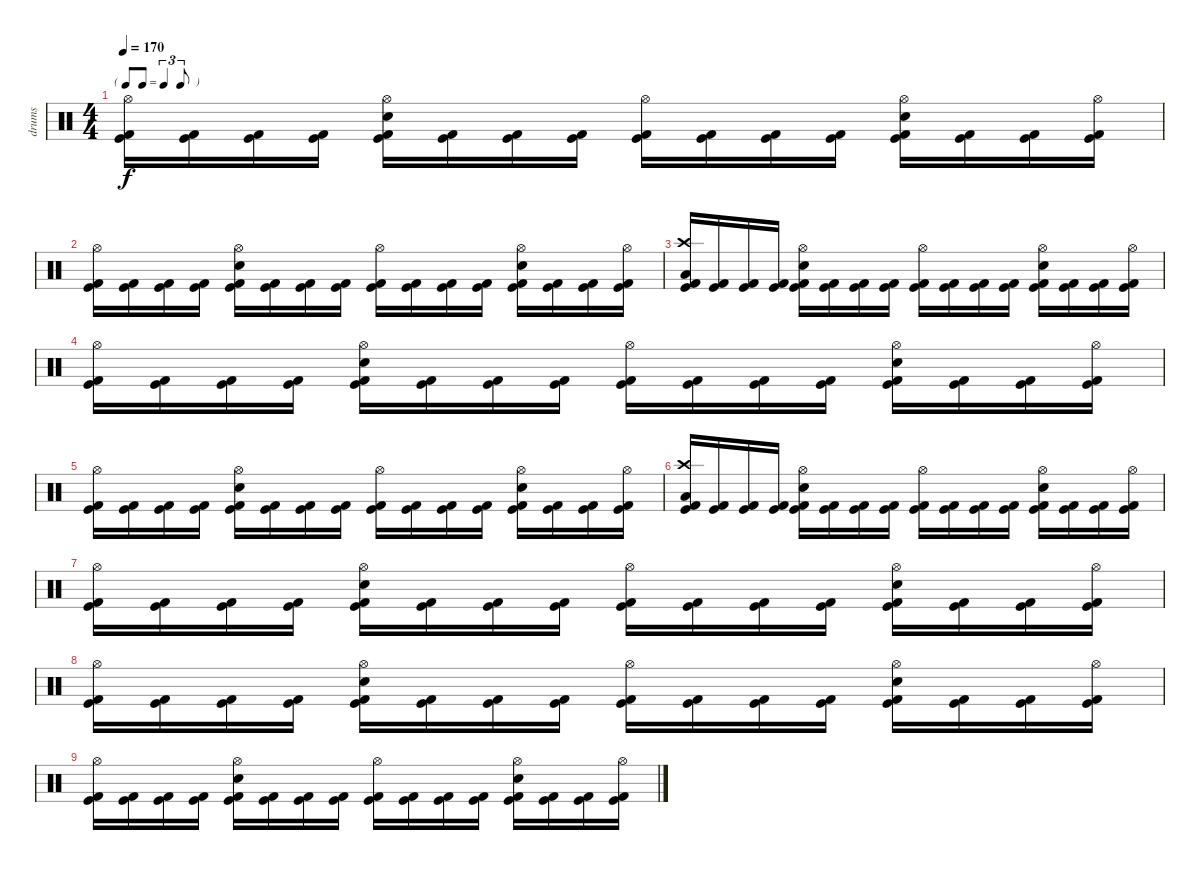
\track ("drums" "drums") {instrument percussion}
\staff {score}
\articulation defaults
\ts (4 4)
\tf triplet8th
\tempo 170
\clef neutral
\ks c
("Hi-Hat (open)" "Kick (hit)" "Kick (hit) 2").16{dy f} ("Kick (hit)" "Kick (hit) 2").16 ("Kick (hit)" "Kick (hit) 2").16 ("Kick (hit)" "Kick (hit) 2").16 ("Hi-Hat (open)" "Snare (hit) 2" "Kick (hit)" "Kick (hit) 2").16 ("Kick (hit)" "Kick (hit) 2").16 ("Kick (hit)" "Kick (hit) 2").16 ("Kick (hit)" "Kick (hit) 2").16 ("Hi-Hat (open)" "Kick (hit)" "Kick (hit) 2").16 ("Kick (hit)" "Kick (hit) 2").16 ("Kick (hit)" "Kick (hit) 2").16 ("Kick (hit)" "Kick (hit) 2").16 ("Hi-Hat (open)" "Snare (hit) 2" "Kick (hit)" "Kick (hit) 2").16 ("Kick (hit)" "Kick (hit) 2").16 ("Kick (hit)" "Kick (hit) 2").16 ("Hi-Hat (open)" "Kick (hit)" "Kick (hit) 2").16 |
("Hi-Hat (open)" "Kick (hit)" "Kick (hit) 2").16 ("Kick (hit)" "Kick (hit) 2").16 ("Kick (hit)" "Kick (hit) 2").16 ("Kick (hit)" "Kick (hit) 2").16 ("Hi-Hat (open)" "Snare (hit) 2" "Kick (hit)" "Kick (hit) 2").16 ("Kick (hit)" "Kick (hit) 2").16 ("Kick (hit)" "Kick (hit) 2").16 ("Kick (hit)" "Kick (hit) 2").16 ("Hi-Hat (open)" "Kick (hit)" "Kick (hit) 2").16 ("Kick (hit)" "Kick (hit) 2").16 ("Kick (hit)" "Kick (hit) 2").16 ("Kick (hit)" "Kick (hit) 2").16 ("Hi-Hat (open)" "Snare (hit) 2" "Kick (hit)" "Kick (hit) 2").16 ("Kick (hit)" "Kick (hit) 2").16 ("Kick (hit)" "Kick (hit) 2").16 ("Hi-Hat (open)" "Kick (hit)" "Kick (hit) 2").16 |
("Crash high (hit)" "Low Floor Tom (hit)" "Kick (hit)" "Kick (hit) 2").16 ("Kick (hit)" "Kick (hit) 2").16 ("Kick (hit)" "Kick (hit) 2").16 ("Kick (hit)" "Kick (hit) 2").16 ("Hi-Hat (open)" "Snare (hit) 2" "Kick (hit)" "Kick (hit) 2").16 ("Kick (hit)" "Kick (hit) 2").16 ("Kick (hit)" "Kick (hit) 2").16 ("Kick (hit)" "Kick (hit) 2").16 ("Hi-Hat (open)" "Kick (hit)" "Kick (hit) 2").16 ("Kick (hit)" "Kick (hit) 2").16 ("Kick (hit)" "Kick (hit) 2").16 ("Kick (hit)" "Kick (hit) 2").16 ("Hi-Hat (open)" "Snare (hit) 2" "Kick (hit)" "Kick (hit) 2").16 ("Kick (hit)" "Kick (hit) 2").16 ("Kick (hit)" "Kick (hit) 2").16 ("Hi-Hat (open)" "Kick (hit)" "Kick (hit) 2").16 |
("Hi-Hat (open)" "Kick (hit)" "Kick (hit) 2").16 ("Kick (hit)" "Kick (hit) 2").16 ("Kick (hit)" "Kick (hit) 2").16 ("Kick (hit)" "Kick (hit) 2").16 ("Hi-Hat (open)" "Snare (hit) 2" "Kick (hit)" "Kick (hit) 2").16 ("Kick (hit)" "Kick (hit) 2").16 ("Kick (hit)" "Kick (hit) 2").16 ("Kick (hit)" "Kick (hit) 2").16 ("Hi-Hat (open)" "Kick (hit)" "Kick (hit) 2").16 ("Kick (hit)" "Kick (hit) 2").16 ("Kick (hit)" "Kick (hit) 2").16 ("Kick (hit)" "Kick (hit) 2").16 ("Hi-Hat (open)" "Snare (hit) 2" "Kick (hit)" "Kick (hit) 2").16 ("Kick (hit)" "Kick (hit) 2").16 ("Kick (hit)" "Kick (hit) 2").16 ("Hi-Hat (open)" "Kick (hit)" "Kick (hit) 2").16 |
("Hi-Hat (open)" "Kick (hit)" "Kick (hit) 2").16 ("Kick (hit)" "Kick (hit) 2").16 ("Kick (hit)" "Kick (hit) 2").16 ("Kick (hit)" "Kick (hit) 2").16 ("Hi-Hat (open)" "Snare (hit) 2" "Kick (hit)" "Kick (hit) 2").16 ("Kick (hit)" "Kick (hit) 2").16 ("Kick (hit)" "Kick (hit) 2").16 ("Kick (hit)" "Kick (hit) 2").16 ("Hi-Hat (open)" "Kick (hit)" "Kick (hit) 2").16 ("Kick (hit)" "Kick (hit) 2").16 ("Kick (hit)" "Kick (hit) 2").16 ("Kick (hit)" "Kick (hit) 2").16 ("Hi-Hat (open)" "Snare (hit) 2" "Kick (hit)" "Kick (hit) 2").16 ("Kick (hit)" "Kick (hit) 2").16 ("Kick (hit)" "Kick (hit) 2").16 ("Hi-Hat (open)" "Kick (hit)" "Kick (hit) 2").16 |
("Crash high (hit)" "Low Floor Tom (hit)" "Kick (hit)" "Kick (hit) 2").16 ("Kick (hit)" "Kick (hit) 2").16 ("Kick (hit)" "Kick (hit) 2").16 ("Kick (hit)" "Kick (hit) 2").16 ("Hi-Hat (open)" "Snare (hit) 2" "Kick (hit)" "Kick (hit) 2").16 ("Kick (hit)" "Kick (hit) 2").16 ("Kick (hit)" "Kick (hit) 2").16 ("Kick (hit)" "Kick (hit) 2").16 ("Hi-Hat (open)" "Kick (hit)" "Kick (hit) 2").16 ("Kick (hit)" "Kick (hit) 2").16 ("Kick (hit)" "Kick (hit) 2").16 ("Kick (hit)" "Kick (hit) 2").16 ("Hi-Hat (open)" "Snare (hit) 2" "Kick (hit)" "Kick (hit) 2").16 ("Kick (hit)" "Kick (hit) 2").16 ("Kick (hit)" "Kick (hit) 2").16 ("Hi-Hat (open)" "Kick (hit)" "Kick (hit) 2").16 |
("Hi-Hat (open)" "Kick (hit)" "Kick (hit) 2").16 ("Kick (hit)" "Kick (hit) 2").16 ("Kick (hit)" "Kick (hit) 2").16 ("Kick (hit)" "Kick (hit) 2").16 ("Hi-Hat (open)" "Snare (hit) 2" "Kick (hit)" "Kick (hit) 2").16 ("Kick (hit)" "Kick (hit) 2").16 ("Kick (hit)" "Kick (hit) 2").16 ("Kick (hit)" "Kick (hit) 2").16 ("Hi-Hat (open)" "Kick (hit)" "Kick (hit) 2").16 ("Kick (hit)" "Kick (hit) 2").16 ("Kick (hit)" "Kick (hit) 2").16 ("Kick (hit)" "Kick (hit) 2").16 ("Hi-Hat (open)" "Snare (hit) 2" "Kick (hit)" "Kick (hit) 2").16 ("Kick (hit)" "Kick (hit) 2").16 ("Kick (hit)" "Kick (hit) 2").16 ("Hi-Hat (open)" "Kick (hit)" "Kick (hit) 2").16 |
("Hi-Hat (open)" "Kick (hit)" "Kick (hit) 2").16 ("Kick (hit)" "Kick (hit) 2").16 ("Kick (hit)" "Kick (hit) 2").16 ("Kick (hit)" "Kick (hit) 2").16 ("Hi-Hat (open)" "Snare (hit) 2" "Kick (hit)" "Kick (hit) 2").16 ("Kick (hit)" "Kick (hit) 2").16 ("Kick (hit)" "Kick (hit) 2").16 ("Kick (hit)" "Kick (hit) 2").16 ("Hi-Hat (open)" "Kick (hit)" "Kick (hit) 2").16 ("Kick (hit)" "Kick (hit) 2").16 ("Kick (hit)" "Kick (hit) 2").16 ("Kick (hit)" "Kick (hit) 2").16 ("Hi-Hat (open)" "Snare (hit) 2" "Kick (hit)" "Kick (hit) 2").16 ("Kick (hit)" "Kick (hit) 2").16 ("Kick (hit)" "Kick (hit) 2").16 ("Hi-Hat (open)" "Kick (hit)" "Kick (hit) 2").16 |
("Hi-Hat (open)" "Kick (hit)" "Kick (hit) 2").16 ("Kick (hit)" "Kick (hit) 2").16 ("Kick (hit)" "Kick (hit) 2").16 ("Kick (hit)" "Kick (hit) 2").16 ("Hi-Hat (open)" "Snare (hit) 2" "Kick (hit)" "Kick (hit) 2").16 ("Kick (hit)" "Kick (hit) 2").16 ("Kick (hit)" "Kick (hit) 2").16 ("Kick (hit)" "Kick (hit) 2").16 ("Hi-Hat (open)" "Kick (hit)" "Kick (hit) 2").16 ("Kick (hit)" "Kick (hit) 2").16 ("Kick (hit)" "Kick (hit) 2").16 ("Kick (hit)" "Kick (hit) 2").16 ("Hi-Hat (open)" "Snare (hit) 2" "Kick (hit)" "Kick (hit) 2").16 ("Kick (hit)" "Kick (hit) 2").16 ("Kick (hit)" "Kick (hit) 2").16 ("Hi-Hat (open)" "Kick (hit)" "Kick (hit) 2").16
